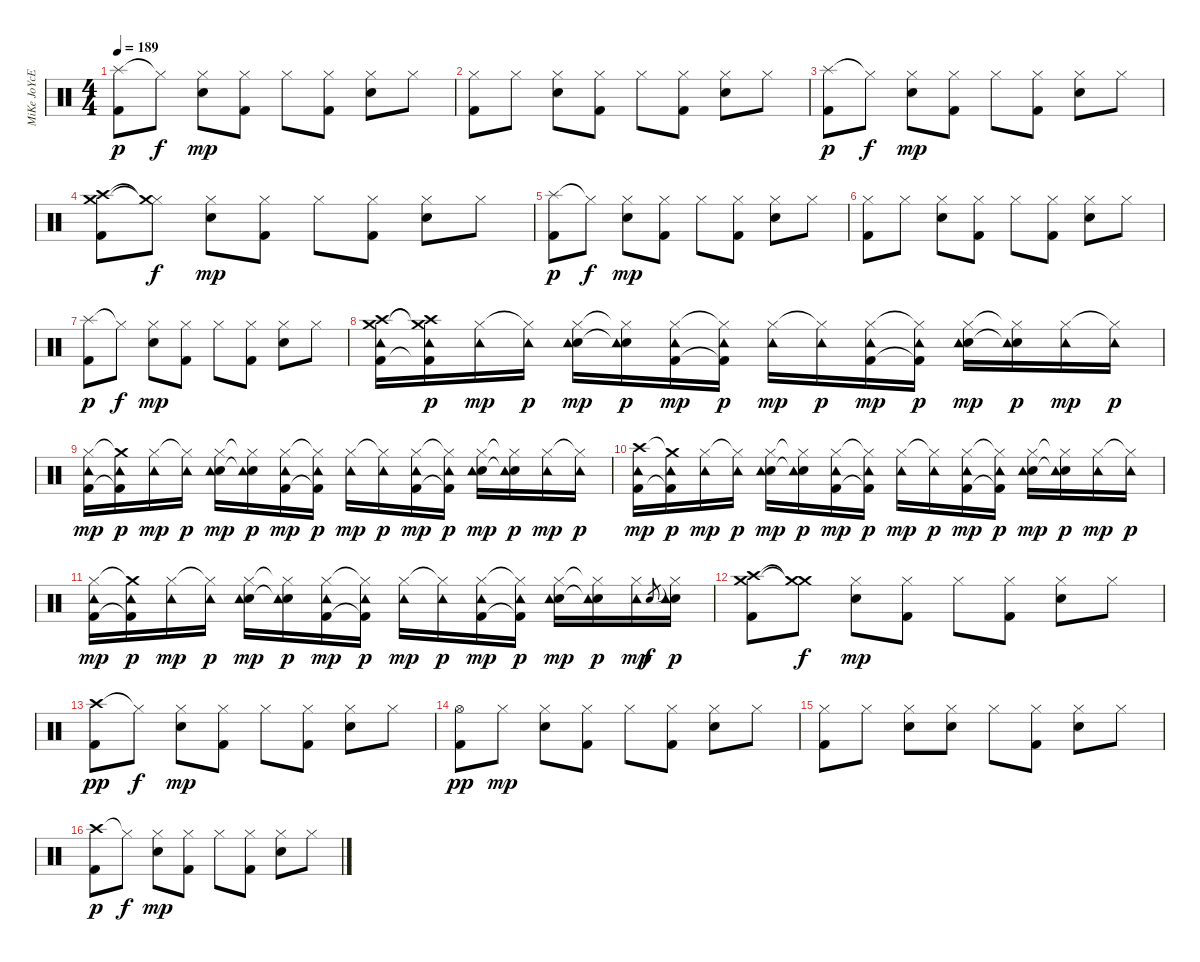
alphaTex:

\track ("MiKe JoYcE" "MiKe JoYcE") {instrument percussion}
\staff {score}
\articulation defaults
\ts (4 4)
\tempo 189
\clef neutral
\ks c
("Splash (hit)" "Kick (hit) 2").8{dy p} "Hi-Hat (closed)"{t}.8{dy f} ("Hi-Hat (closed)" "Electric Snare (hit)").8{dy mp} ("Hi-Hat (closed)" "Kick (hit) 2").8 "Hi-Hat (closed)".8 ("Hi-Hat (closed)" "Kick (hit) 2").8 ("Hi-Hat (closed)" "Electric Snare (hit)").8 "Hi-Hat (closed)".8 |
("Hi-Hat (closed)" "Kick (hit) 2").8 "Hi-Hat (closed)".8 ("Hi-Hat (closed)" "Electric Snare (hit)").8 ("Hi-Hat (closed)" "Kick (hit) 2").8 "Hi-Hat (closed)".8 ("Hi-Hat (closed)" "Kick (hit) 2").8 ("Hi-Hat (closed)" "Electric Snare (hit)").8 "Hi-Hat (closed)".8 |
("Splash (hit)" "Kick (hit) 2").8{dy p} "Hi-Hat (closed)"{t}.8{dy f} ("Hi-Hat (closed)" "Electric Snare (hit)").8{dy mp} ("Hi-Hat (closed)" "Kick (hit) 2").8 "Hi-Hat (closed)".8 ("Hi-Hat (closed)" "Kick (hit) 2").8 ("Hi-Hat (closed)" "Electric Snare (hit)").8 "Hi-Hat (closed)".8 |
("Crash high (hit)" "Crash medium (hit)" "Kick (hit) 2").8 ("Hi-Hat (closed)"{t} "Crash medium (hit)"{t}).8{dy f} ("Hi-Hat (closed)" "Electric Snare (hit)").8{dy mp} ("Hi-Hat (closed)" "Kick (hit) 2").8 "Hi-Hat (closed)".8 ("Hi-Hat (closed)" "Kick (hit) 2").8 ("Hi-Hat (closed)" "Electric Snare (hit)").8 "Hi-Hat (closed)".8 |
("Splash (hit)" "Kick (hit) 2").8{dy p} "Hi-Hat (closed)"{t}.8{dy f} ("Hi-Hat (closed)" "Electric Snare (hit)").8{dy mp} ("Hi-Hat (closed)" "Kick (hit) 2").8 "Hi-Hat (closed)".8 ("Hi-Hat (closed)" "Kick (hit) 2").8 ("Hi-Hat (closed)" "Electric Snare (hit)").8 "Hi-Hat (closed)".8 |
("Hi-Hat (closed)" "Kick (hit) 2").8 "Hi-Hat (closed)".8 ("Hi-Hat (closed)" "Electric Snare (hit)").8 ("Hi-Hat (closed)" "Kick (hit) 2").8 "Hi-Hat (closed)".8 ("Hi-Hat (closed)" "Kick (hit) 2").8 ("Hi-Hat (closed)" "Electric Snare (hit)").8 "Hi-Hat (closed)".8 |
("Splash (hit)" "Kick (hit) 2").8{dy p} "Hi-Hat (closed)"{t}.8{dy f} ("Hi-Hat (closed)" "Electric Snare (hit)").8{dy mp} ("Hi-Hat (closed)" "Kick (hit) 2").8 "Hi-Hat (closed)".8 ("Hi-Hat (closed)" "Kick (hit) 2").8 ("Hi-Hat (closed)" "Electric Snare (hit)").8 "Hi-Hat (closed)".8 |
("Crash high (hit)" "Crash medium (hit)" "Tambourine (hit)" "Kick (hit) 2").16 ("Crash medium (hit)"{t} "Crash high (hit)"{t} "Tambourine (hit)" "Kick (hit) 2"{t}).16{dy p} ("Hi-Hat (closed)" "Tambourine (hit)").16{dy mp} ("Hi-Hat (closed)"{t} "Tambourine (hit)").16{dy p} ("Hi-Hat (closed)" "Electric Snare (hit)" "Tambourine (hit)").16{dy mp} ("Hi-Hat (closed)"{t} "Electric Snare (hit)"{t} "Tambourine (hit)").16{dy p} ("Hi-Hat (closed)" "Tambourine (hit)" "Kick (hit) 2").16{dy mp} ("Hi-Hat (closed)"{t} "Tambourine (hit)" "Kick (hit) 2"{t}).16{dy p} ("Hi-Hat (closed)" "Tambourine (hit)").16{dy mp} ("Hi-Hat (closed)"{t} "Tambourine (hit)").16{dy p} ("Hi-Hat (closed)" "Tambourine (hit)" "Kick (hit) 2").16{dy mp} ("Hi-Hat (closed)"{t} "Tambourine (hit)" "Kick (hit) 2"{t}).16{dy p} ("Hi-Hat (closed)" "Electric Snare (hit)" "Tambourine (hit)").16{dy mp} ("Hi-Hat (closed)"{t} "Electric Snare (hit)"{t} "Tambourine (hit)").16{dy p} ("Hi-Hat (closed)" "Tambourine (hit)").16{dy mp} ("Hi-Hat (closed)"{t} "Tambourine (hit)").16{dy p} |
("Hi-Hat (closed)" "Tambourine (hit)" "Kick (hit) 2").16{dy mp} ("Crash medium (hit)"{t} "Tambourine (hit)" "Kick (hit) 2"{t}).16{dy p} ("Hi-Hat (closed)" "Tambourine (hit)").16{dy mp} ("Hi-Hat (closed)"{t} "Tambourine (hit)").16{dy p} ("Hi-Hat (closed)" "Electric Snare (hit)" "Tambourine (hit)").16{dy mp} ("Hi-Hat (closed)"{t} "Electric Snare (hit)"{t} "Tambourine (hit)").16{dy p} ("Hi-Hat (closed)" "Tambourine (hit)" "Kick (hit) 2").16{dy mp} ("Hi-Hat (closed)"{t} "Tambourine (hit)" "Kick (hit) 2"{t}).16{dy p} ("Hi-Hat (closed)" "Tambourine (hit)").16{dy mp} ("Hi-Hat (closed)"{t} "Tambourine (hit)").16{dy p} ("Hi-Hat (closed)" "Tambourine (hit)" "Kick (hit) 2").16{dy mp} ("Hi-Hat (closed)"{t} "Tambourine (hit)" "Kick (hit) 2"{t}).16{dy p} ("Hi-Hat (closed)" "Electric Snare (hit)" "Tambourine (hit)").16{dy mp} ("Hi-Hat (closed)"{t} "Electric Snare (hit)"{t} "Tambourine (hit)").16{dy p} ("Hi-Hat (closed)" "Tambourine (hit)").16{dy mp} ("Hi-Hat (closed)"{t} "Tambourine (hit)").16{dy p} |
("Crash high (hit)" "Tambourine (hit)" "Kick (hit) 2").16{dy mp} ("Crash medium (hit)"{t} "Tambourine (hit)" "Kick (hit) 2"{t}).16{dy p} ("Hi-Hat (closed)" "Tambourine (hit)").16{dy mp} ("Hi-Hat (closed)"{t} "Tambourine (hit)").16{dy p} ("Hi-Hat (closed)" "Electric Snare (hit)" "Tambourine (hit)").16{dy mp} ("Hi-Hat (closed)"{t} "Electric Snare (hit)"{t} "Tambourine (hit)").16{dy p} ("Hi-Hat (closed)" "Tambourine (hit)" "Kick (hit) 2").16{dy mp} ("Hi-Hat (closed)"{t} "Tambourine (hit)" "Kick (hit) 2"{t}).16{dy p} ("Hi-Hat (closed)" "Tambourine (hit)").16{dy mp} ("Hi-Hat (closed)"{t} "Tambourine (hit)").16{dy p} ("Hi-Hat (closed)" "Tambourine (hit)" "Kick (hit) 2").16{dy mp} ("Hi-Hat (closed)"{t} "Tambourine (hit)" "Kick (hit) 2"{t}).16{dy p} ("Hi-Hat (closed)" "Electric Snare (hit)" "Tambourine (hit)").16{dy mp} ("Hi-Hat (closed)"{t} "Electric Snare (hit)"{t} "Tambourine (hit)").16{dy p} ("Hi-Hat (closed)" "Tambourine (hit)").16{dy mp} ("Hi-Hat (closed)"{t} "Tambourine (hit)").16{dy p} |
("Hi-Hat (closed)" "Tambourine (hit)" "Kick (hit) 2").16{dy mp} ("Crash medium (hit)"{t} "Tambourine (hit)" "Kick (hit) 2"{t}).16{dy p} ("Hi-Hat (closed)" "Tambourine (hit)").16{dy mp} ("Hi-Hat (closed)"{t} "Tambourine (hit)").16{dy p} ("Hi-Hat (closed)" "Electric Snare (hit)" "Tambourine (hit)").16{dy mp} ("Hi-Hat (closed)"{t} "Electric Snare (hit)"{t} "Tambourine (hit)").16{dy p} ("Hi-Hat (closed)" "Tambourine (hit)" "Kick (hit) 2").16{dy mp} ("Hi-Hat (closed)"{t} "Tambourine (hit)" "Kick (hit) 2"{t}).16{dy p} ("Hi-Hat (closed)" "Tambourine (hit)").16{dy mp} ("Hi-Hat (closed)"{t} "Tambourine (hit)").16{dy p} ("Hi-Hat (closed)" "Tambourine (hit)" "Kick (hit) 2").16{dy mp} ("Hi-Hat (closed)"{t} "Tambourine (hit)" "Kick (hit) 2"{t}).16{dy p} ("Hi-Hat (closed)" "Electric Snare (hit)" "Tambourine (hit)").16{dy mp} ("Hi-Hat (closed)"{t} "Electric Snare (hit)"{t} "Tambourine (hit)").16{dy p} ("Hi-Hat (closed)" "Tambourine (hit)").16{dy mp} "Electric Snare (hit)".8{gr dy f} ("Hi-Hat (closed)"{t} "Electric Snare (hit)" "Tambourine (hit)").16{dy p} |
("Crash high (hit)" "Crash medium (hit)" "Kick (hit) 2").8 ("Crash medium (hit)"{t} "Crash medium (hit)"{t}).8{dy f} ("Hi-Hat (closed)" "Electric Snare (hit)").8{dy mp} ("Hi-Hat (closed)" "Kick (hit) 2").8 "Hi-Hat (closed)".8 ("Hi-Hat (closed)" "Kick (hit) 2").8 ("Hi-Hat (closed)" "Electric Snare (hit)").8 "Hi-Hat (closed)".8 |
("Crash high (hit)" "Kick (hit) 2").8{dy pp} "Hi-Hat (closed)"{t}.8{dy f} ("Hi-Hat (closed)" "Electric Snare (hit)").8{dy mp} ("Hi-Hat (closed)" "Kick (hit) 2").8 "Hi-Hat (closed)".8 ("Hi-Hat (closed)" "Kick (hit) 2").8 ("Hi-Hat (closed)" "Electric Snare (hit)").8 "Hi-Hat (closed)".8 |
("Hi-Hat (open)" "Kick (hit) 2").8{dy pp} "Hi-Hat (closed)".8{dy mp} ("Hi-Hat (closed)" "Electric Snare (hit)").8 ("Hi-Hat (closed)" "Kick (hit) 2").8 "Hi-Hat (closed)".8 ("Hi-Hat (closed)" "Kick (hit) 2").8 ("Hi-Hat (closed)" "Electric Snare (hit)").8 "Hi-Hat (closed)".8 |
("Hi-Hat (closed)" "Kick (hit) 2").8 "Hi-Hat (closed)".8 ("Hi-Hat (closed)" "Electric Snare (hit)").8 ("Hi-Hat (closed)" "Electric Snare (hit)").8 "Hi-Hat (closed)".8 ("Hi-Hat (closed)" "Kick (hit) 2").8 ("Hi-Hat (closed)" "Electric Snare (hit)").8 "Hi-Hat (closed)".8 |
("Crash high (hit)" "Kick (hit) 2").8{dy p} "Hi-Hat (closed)"{t}.8{dy f} ("Hi-Hat (closed)" "Electric Snare (hit)").8{dy mp} ("Hi-Hat (closed)" "Kick (hit) 2").8 "Hi-Hat (closed)".8 ("Hi-Hat (closed)" "Kick (hit) 2").8 ("Hi-Hat (closed)" "Electric Snare (hit)").8 "Hi-Hat (closed)".8
